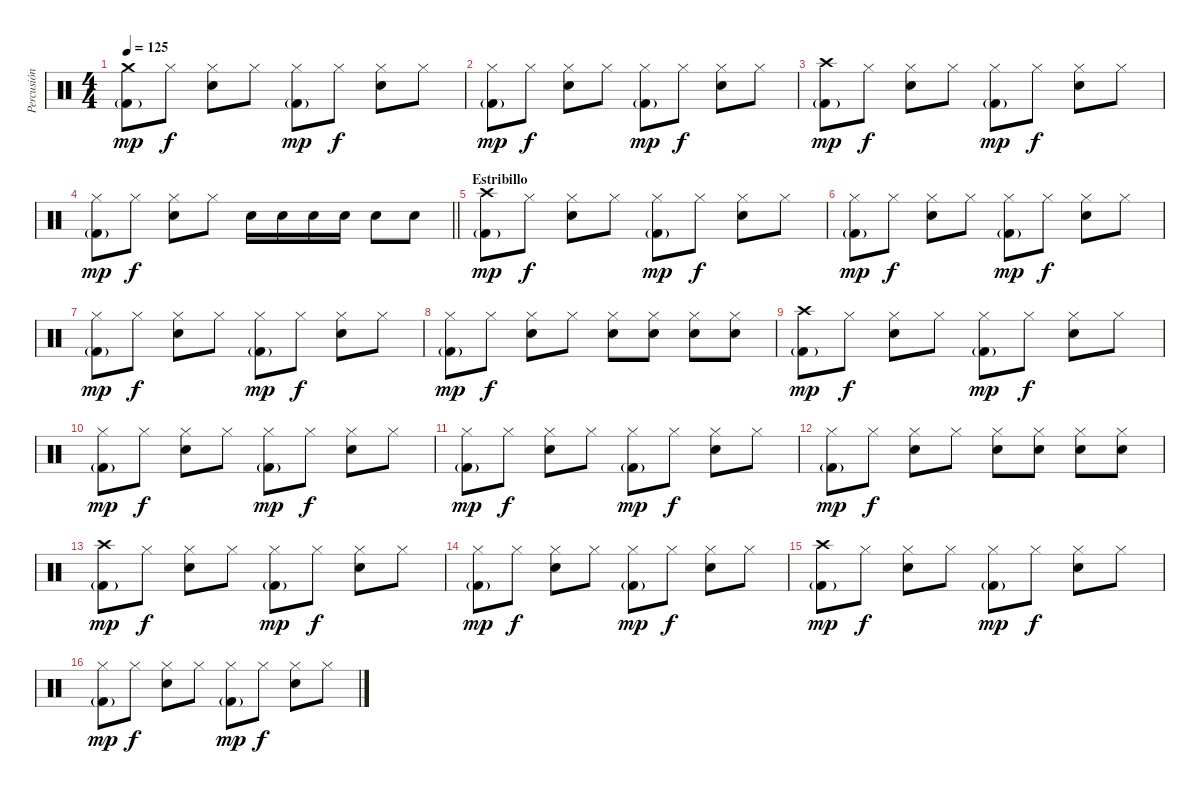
\track ("Percusión" "Percusión") {instrument percussion}
\staff {score}
\articulation defaults
\ts (4 4)
\tempo 125
\clef neutral
\ks c
("Crash medium (hit)" "Kick (hit) 2"{g}).8{dy mp} "Hi-Hat (closed)".8{dy f} ("Hi-Hat (closed)" "Snare (hit) 2").8 "Hi-Hat (closed)".8 ("Hi-Hat (closed)" "Kick (hit) 2"{g}).8{dy mp} "Hi-Hat (closed)".8{dy f} ("Hi-Hat (closed)" "Snare (hit) 2").8 "Hi-Hat (closed)".8 |
("Hi-Hat (closed)" "Kick (hit) 2"{g}).8{dy mp} "Hi-Hat (closed)".8{dy f} ("Hi-Hat (closed)" "Snare (hit) 2").8 "Hi-Hat (closed)".8 ("Hi-Hat (closed)" "Kick (hit) 2"{g}).8{dy mp} "Hi-Hat (closed)".8{dy f} ("Hi-Hat (closed)" "Snare (hit) 2").8 "Hi-Hat (closed)".8 |
("Crash high (hit)" "Kick (hit) 2"{g}).8{dy mp} "Hi-Hat (closed)".8{dy f} ("Hi-Hat (closed)" "Snare (hit) 2").8 "Hi-Hat (closed)".8 ("Hi-Hat (closed)" "Kick (hit) 2"{g}).8{dy mp} "Hi-Hat (closed)".8{dy f} ("Hi-Hat (closed)" "Snare (hit) 2").8 "Hi-Hat (closed)".8 |
\barLineRight lightlight
("Hi-Hat (closed)" "Kick (hit) 2"{g}).8{dy mp} "Hi-Hat (closed)".8{dy f} ("Hi-Hat (closed)" "Snare (hit) 2").8 "Hi-Hat (closed)".8 "Snare (hit) 2".16 "Snare (hit) 2".16 "Snare (hit) 2".16 "Snare (hit) 2".16 "Snare (hit) 2".8 "Snare (hit) 2".8 |
\section ("" "Estribillo")
("Crash high (hit)" "Kick (hit) 2"{g}).8{dy mp} "Hi-Hat (closed)".8{dy f} ("Hi-Hat (closed)" "Snare (hit) 2").8 "Hi-Hat (closed)".8 ("Hi-Hat (closed)" "Kick (hit) 2"{g}).8{dy mp} "Hi-Hat (closed)".8{dy f} ("Hi-Hat (closed)" "Snare (hit) 2").8 "Hi-Hat (closed)".8 |
("Hi-Hat (closed)" "Kick (hit) 2"{g}).8{dy mp} "Hi-Hat (closed)".8{dy f} ("Hi-Hat (closed)" "Snare (hit) 2").8 "Hi-Hat (closed)".8 ("Hi-Hat (closed)" "Kick (hit) 2"{g}).8{dy mp} "Hi-Hat (closed)".8{dy f} ("Hi-Hat (closed)" "Snare (hit) 2").8 "Hi-Hat (closed)".8 |
("Hi-Hat (closed)" "Kick (hit) 2"{g}).8{dy mp} "Hi-Hat (closed)".8{dy f} ("Hi-Hat (closed)" "Snare (hit) 2").8 "Hi-Hat (closed)".8 ("Hi-Hat (closed)" "Kick (hit) 2"{g}).8{dy mp} "Hi-Hat (closed)".8{dy f} ("Hi-Hat (closed)" "Snare (hit) 2").8 "Hi-Hat (closed)".8 |
("Hi-Hat (closed)" "Kick (hit) 2"{g}).8{dy mp} "Hi-Hat (closed)".8{dy f} ("Hi-Hat (closed)" "Snare (hit) 2").8 "Hi-Hat (closed)".8 ("Hi-Hat (closed)" "Snare (hit) 2").8 ("Hi-Hat (closed)" "Snare (hit) 2").8 ("Hi-Hat (closed)" "Snare (hit) 2").8 ("Hi-Hat (closed)" "Snare (hit) 2").8 |
("Crash high (hit)" "Kick (hit) 2"{g}).8{dy mp} "Hi-Hat (closed)".8{dy f} ("Hi-Hat (closed)" "Snare (hit) 2").8 "Hi-Hat (closed)".8 ("Hi-Hat (closed)" "Kick (hit) 2"{g}).8{dy mp} "Hi-Hat (closed)".8{dy f} ("Hi-Hat (closed)" "Snare (hit) 2").8 "Hi-Hat (closed)".8 |
("Hi-Hat (closed)" "Kick (hit) 2"{g}).8{dy mp} "Hi-Hat (closed)".8{dy f} ("Hi-Hat (closed)" "Snare (hit) 2").8 "Hi-Hat (closed)".8 ("Hi-Hat (closed)" "Kick (hit) 2"{g}).8{dy mp} "Hi-Hat (closed)".8{dy f} ("Hi-Hat (closed)" "Snare (hit) 2").8 "Hi-Hat (closed)".8 |
("Hi-Hat (closed)" "Kick (hit) 2"{g}).8{dy mp} "Hi-Hat (closed)".8{dy f} ("Hi-Hat (closed)" "Snare (hit) 2").8 "Hi-Hat (closed)".8 ("Hi-Hat (closed)" "Kick (hit) 2"{g}).8{dy mp} "Hi-Hat (closed)".8{dy f} ("Hi-Hat (closed)" "Snare (hit) 2").8 "Hi-Hat (closed)".8 |
("Hi-Hat (closed)" "Kick (hit) 2"{g}).8{dy mp} "Hi-Hat (closed)".8{dy f} ("Hi-Hat (closed)" "Snare (hit) 2").8 "Hi-Hat (closed)".8 ("Hi-Hat (closed)" "Snare (hit) 2").8 ("Hi-Hat (closed)" "Snare (hit) 2").8 ("Hi-Hat (closed)" "Snare (hit) 2").8 ("Hi-Hat (closed)" "Snare (hit) 2").8 |
("Crash high (hit)" "Kick (hit) 2"{g}).8{dy mp} "Hi-Hat (closed)".8{dy f} ("Hi-Hat (closed)" "Snare (hit) 2").8 "Hi-Hat (closed)".8 ("Hi-Hat (closed)" "Kick (hit) 2"{g}).8{dy mp} "Hi-Hat (closed)".8{dy f} ("Hi-Hat (closed)" "Snare (hit) 2").8 "Hi-Hat (closed)".8 |
("Hi-Hat (closed)" "Kick (hit) 2"{g}).8{dy mp} "Hi-Hat (closed)".8{dy f} ("Hi-Hat (closed)" "Snare (hit) 2").8 "Hi-Hat (closed)".8 ("Hi-Hat (closed)" "Kick (hit) 2"{g}).8{dy mp} "Hi-Hat (closed)".8{dy f} ("Hi-Hat (closed)" "Snare (hit) 2").8 "Hi-Hat (closed)".8 |
("Crash high (hit)" "Kick (hit) 2"{g}).8{dy mp} "Hi-Hat (closed)".8{dy f} ("Hi-Hat (closed)" "Snare (hit) 2").8 "Hi-Hat (closed)".8 ("Hi-Hat (closed)" "Kick (hit) 2"{g}).8{dy mp} "Hi-Hat (closed)".8{dy f} ("Hi-Hat (closed)" "Snare (hit) 2").8 "Hi-Hat (closed)".8 |
("Hi-Hat (closed)" "Kick (hit) 2"{g}).8{dy mp} "Hi-Hat (closed)".8{dy f} ("Hi-Hat (closed)" "Snare (hit) 2").8 "Hi-Hat (closed)".8 ("Hi-Hat (closed)" "Kick (hit) 2"{g}).8{dy mp} "Hi-Hat (closed)".8{dy f} ("Hi-Hat (closed)" "Snare (hit) 2").8 "Hi-Hat (closed)".8
